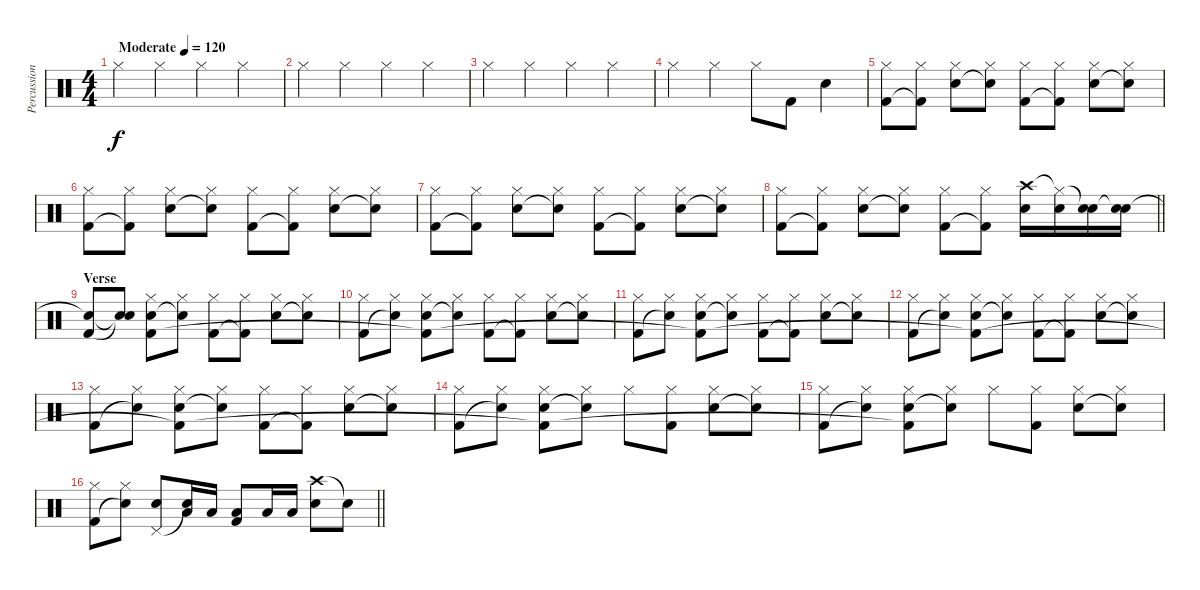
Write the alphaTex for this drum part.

\track ("Percussion" "Percussion") {instrument percussion}
\staff {score}
\articulation defaults
\ts (4 4)
\tempo (120 "Moderate")
\clef neutral
\ks c "Hi-Hat (closed)".4{dy f} "Hi-Hat (closed)".4 "Hi-Hat (closed)".4 "Hi-Hat (closed)".4
|
"Hi-Hat (closed)".4 "Hi-Hat (closed)".4 "Hi-Hat (closed)".4 "Hi-Hat (closed)".4 |
"Hi-Hat (closed)".4 "Hi-Hat (closed)".4 "Hi-Hat (closed)".4 "Hi-Hat (closed)".4 |
"Hi-Hat (closed)".4 "Hi-Hat (closed)".4 "Hi-Hat (closed)".8 "Kick (hit) 2".8 "Electric Snare (hit)".4 |
("Hi-Hat (closed)" "Kick (hit) 2").8 ("Hi-Hat (closed)" "Kick (hit) 2"{t}).8 ("Hi-Hat (closed)" "Electric Snare (hit)").8 ("Hi-Hat (closed)" "Electric Snare (hit)"{t}).8 ("Hi-Hat (closed)" "Kick (hit) 2").8 ("Hi-Hat (closed)" "Kick (hit) 2"{t}).8 ("Hi-Hat (closed)" "Electric Snare (hit)").8 ("Hi-Hat (closed)" "Electric Snare (hit)"{t}).8 |
("Hi-Hat (closed)" "Kick (hit) 2").8 ("Hi-Hat (closed)" "Kick (hit) 2"{t}).8 ("Hi-Hat (closed)" "Electric Snare (hit)").8 ("Hi-Hat (closed)" "Electric Snare (hit)"{t}).8 ("Hi-Hat (closed)" "Kick (hit) 2").8 ("Hi-Hat (closed)" "Kick (hit) 2"{t}).8 ("Hi-Hat (closed)" "Electric Snare (hit)").8 ("Hi-Hat (closed)" "Electric Snare (hit)"{t}).8 |
("Hi-Hat (closed)" "Kick (hit) 2").8 ("Hi-Hat (closed)" "Kick (hit) 2"{t}).8 ("Hi-Hat (closed)" "Electric Snare (hit)").8 ("Hi-Hat (closed)" "Electric Snare (hit)"{t}).8 ("Hi-Hat (closed)" "Kick (hit) 2").8 ("Hi-Hat (closed)" "Kick (hit) 2"{t}).8 ("Hi-Hat (closed)" "Electric Snare (hit)").8 ("Hi-Hat (closed)" "Electric Snare (hit)"{t}).8 |
\barLineRight lightlight
("Hi-Hat (closed)" "Kick (hit) 2").8 ("Hi-Hat (closed)" "Kick (hit) 2"{t}).8 ("Hi-Hat (closed)" "Electric Snare (hit)").8 ("Hi-Hat (closed)" "Electric Snare (hit)"{t}).8 ("Hi-Hat (closed)" "Kick (hit) 2").8 ("Hi-Hat (closed)" "Kick (hit) 2"{t}).8 ("Crash high (hit)" "Electric Snare (hit)").16 ("Hi-Hat (closed)"{t} "Electric Snare (hit)").16 ("Snare (hit)"{t} "Electric Snare (hit)").16 ("Snare (hit)"{t} "Electric Snare (hit)").16 |
\section ("" "Verse")
("Snare (hit)"{t} "Kick (hit) 2").8 ("Snare (hit)"{t} "Snare (hit)"{t}).8 ("Hi-Hat (closed)" "Electric Snare (hit)" "Kick (hit) 2").8 ("Hi-Hat (closed)" "Electric Snare (hit)"{t}).8 ("Hi-Hat (closed)" "Kick (hit) 2").8 ("Hi-Hat (closed)" "Kick (hit) 2"{t}).8 ("Hi-Hat (closed)" "Electric Snare (hit)").8 ("Hi-Hat (closed)" "Electric Snare (hit)"{t}).8 |
("Hi-Hat (closed)" "Kick (hit) 2").8 ("Hi-Hat (closed)" "Snare (hit)"{t}).8 ("Hi-Hat (closed)" "Electric Snare (hit)" "Kick (hit) 2"{t}).8 ("Hi-Hat (closed)" "Electric Snare (hit)"{t}).8 ("Hi-Hat (closed)" "Kick (hit) 2").8 ("Hi-Hat (closed)" "Kick (hit) 2"{t}).8 ("Hi-Hat (closed)" "Electric Snare (hit)").8 ("Hi-Hat (closed)" "Electric Snare (hit)"{t}).8 |
("Hi-Hat (closed)" "Kick (hit) 2").8 ("Hi-Hat (closed)" "Snare (hit)"{t}).8 ("Hi-Hat (closed)" "Electric Snare (hit)" "Kick (hit) 2"{t}).8 ("Hi-Hat (closed)" "Electric Snare (hit)"{t}).8 ("Hi-Hat (closed)" "Kick (hit) 2").8 ("Hi-Hat (closed)" "Kick (hit) 2"{t}).8 ("Hi-Hat (closed)" "Electric Snare (hit)").8 ("Hi-Hat (closed)" "Electric Snare (hit)"{t}).8 |
("Hi-Hat (closed)" "Kick (hit) 2").8 ("Hi-Hat (closed)" "Snare (hit)"{t}).8 ("Hi-Hat (closed)" "Electric Snare (hit)" "Kick (hit) 2"{t}).8 ("Hi-Hat (closed)" "Electric Snare (hit)"{t}).8 ("Hi-Hat (closed)" "Kick (hit) 2").8 ("Hi-Hat (closed)" "Kick (hit) 2"{t}).8 ("Hi-Hat (closed)" "Electric Snare (hit)").8 ("Hi-Hat (closed)" "Electric Snare (hit)"{t}).8 |
("Hi-Hat (closed)" "Kick (hit) 2").8 ("Hi-Hat (closed)" "Snare (hit)"{t}).8 ("Hi-Hat (closed)" "Electric Snare (hit)" "Kick (hit) 2"{t}).8 ("Hi-Hat (closed)" "Electric Snare (hit)"{t}).8 ("Hi-Hat (closed)" "Kick (hit) 2").8 ("Hi-Hat (closed)" "Kick (hit) 2"{t}).8 ("Hi-Hat (closed)" "Electric Snare (hit)").8 ("Hi-Hat (closed)" "Electric Snare (hit)"{t}).8 |
("Hi-Hat (closed)" "Kick (hit) 2").8 ("Hi-Hat (closed)" "Snare (hit)"{t}).8 ("Hi-Hat (closed)" "Electric Snare (hit)" "Kick (hit) 2"{t}).8 ("Hi-Hat (closed)" "Electric Snare (hit)"{t}).8 "Hi-Hat (closed)".8 ("Hi-Hat (closed)" "Kick (hit) 2").8 ("Hi-Hat (closed)" "Electric Snare (hit)").8 ("Hi-Hat (closed)" "Electric Snare (hit)"{t}).8 |
("Hi-Hat (closed)" "Kick (hit) 2").8 ("Hi-Hat (closed)" "Snare (hit)"{t}).8 ("Hi-Hat (closed)" "Electric Snare (hit)" "Kick (hit) 2"{t}).8 ("Hi-Hat (closed)" "Electric Snare (hit)"{t}).8 "Hi-Hat (closed)".8 ("Hi-Hat (closed)" "Kick (hit) 2").8 ("Hi-Hat (closed)" "Electric Snare (hit)").8 ("Hi-Hat (closed)" "Electric Snare (hit)"{t}).8 |
\barLineRight lightlight
("Hi-Hat (closed)" "Kick (hit) 2").8 ("Hi-Hat (closed)" "Snare (hit)"{t}).8 ("Pedal Hi-Hat (hit)" "Electric Snare (hit)").8 ("Snare (hit)"{t} "Low Floor Tom (hit)").16 "Low Floor Tom (hit)".16 ("Low Floor Tom (hit)" "Kick (hit) 2").8 "Low Floor Tom (hit)".16 "Low Floor Tom (hit)".16 ("Crash high (hit)" "Electric Snare (hit)").8 "Electric Snare (hit)"{t}.8
